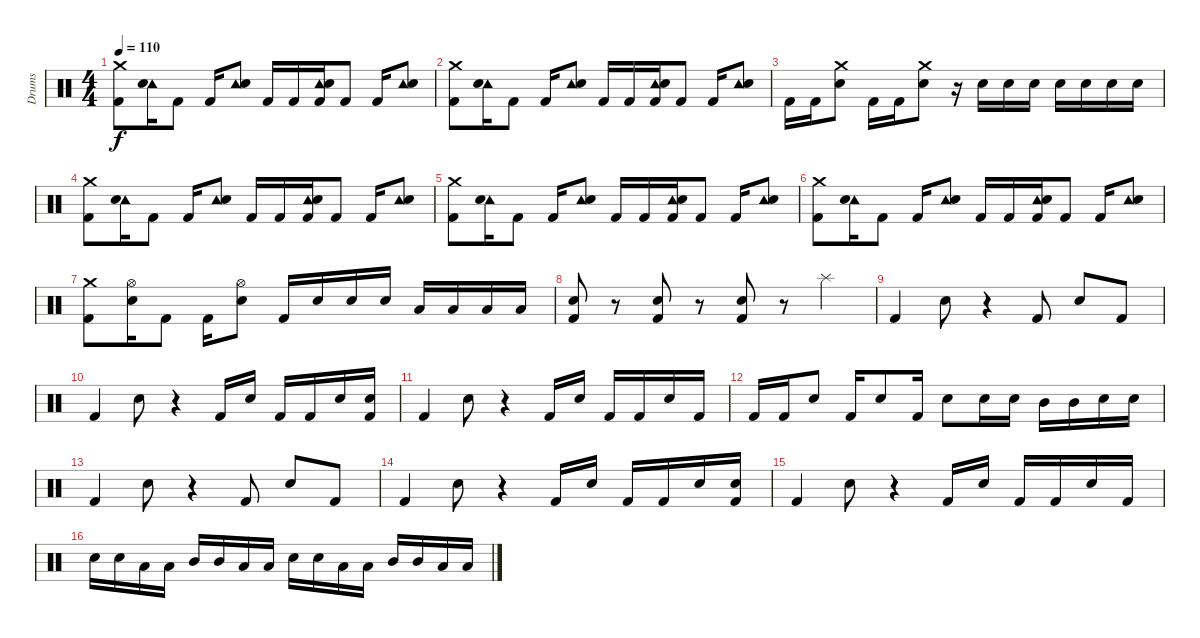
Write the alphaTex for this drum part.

\track ("Drums" "Drums") {instrument percussion}
\staff {score}
\articulation defaults
\ts (4 4)
\tempo 110
\clef neutral
\ks c
("Crash medium (hit)" "Kick (hit) 2").8{dy f} ("Tambourine (hit)" "Electric Snare (hit)").16 "Kick (hit) 2".8 "Kick (hit) 2".16 ("Tambourine (hit)" "Electric Snare (hit)").8 "Kick (hit) 2".16 "Kick (hit) 2".16 ("Tambourine (hit)" "Electric Snare (hit)" "Kick (hit) 2").16 "Kick (hit) 2".8 "Kick (hit) 2".16 ("Tambourine (hit)" "Electric Snare (hit)").8 |
("Crash medium (hit)" "Kick (hit) 2").8 ("Tambourine (hit)" "Electric Snare (hit)").16 "Kick (hit) 2".8 "Kick (hit) 2".16 ("Tambourine (hit)" "Electric Snare (hit)").8 "Kick (hit) 2".16 "Kick (hit) 2".16 ("Tambourine (hit)" "Electric Snare (hit)" "Kick (hit) 2").16 "Kick (hit) 2".8 "Kick (hit) 2".16 ("Tambourine (hit)" "Electric Snare (hit)").8 |
"Kick (hit) 2".16 "Kick (hit) 2".16 ("Crash medium (hit)" "Electric Snare (hit)").8 "Kick (hit) 2".16 "Kick (hit) 2".16 ("Crash medium (hit)" "Electric Snare (hit)").8 r.16 "Electric Snare (hit)".16 "Electric Snare (hit)".16 "Electric Snare (hit)".16 "Electric Snare (hit)".16 "Electric Snare (hit)".16 "Electric Snare (hit)".16 "Electric Snare (hit)".16 |
("Crash medium (hit)" "Kick (hit) 2").8 ("Tambourine (hit)" "Electric Snare (hit)").16 "Kick (hit) 2".8 "Kick (hit) 2".16 ("Tambourine (hit)" "Electric Snare (hit)").8 "Kick (hit) 2".16 "Kick (hit) 2".16 ("Tambourine (hit)" "Electric Snare (hit)" "Kick (hit) 2").16 "Kick (hit) 2".8 "Kick (hit) 2".16 ("Tambourine (hit)" "Electric Snare (hit)").8 |
("Crash medium (hit)" "Kick (hit) 2").8 ("Tambourine (hit)" "Electric Snare (hit)").16 "Kick (hit) 2".8 "Kick (hit) 2".16 ("Tambourine (hit)" "Electric Snare (hit)").8 "Kick (hit) 2".16 "Kick (hit) 2".16 ("Tambourine (hit)" "Electric Snare (hit)" "Kick (hit) 2").16 "Kick (hit) 2".8 "Kick (hit) 2".16 ("Tambourine (hit)" "Electric Snare (hit)").8 |
("Crash medium (hit)" "Kick (hit) 2").8 ("Tambourine (hit)" "Electric Snare (hit)").16 "Kick (hit) 2".8 "Kick (hit) 2".16 ("Tambourine (hit)" "Electric Snare (hit)").8 "Kick (hit) 2".16 "Kick (hit) 2".16 ("Tambourine (hit)" "Electric Snare (hit)" "Kick (hit) 2").16 "Kick (hit) 2".8 "Kick (hit) 2".16 ("Tambourine (hit)" "Electric Snare (hit)").8 |
("Crash medium (hit)" "Kick (hit) 2").8 ("Hi-Hat (open)" "Electric Snare (hit)").16 "Kick (hit) 2".8 "Kick (hit) 2".16 ("Hi-Hat (open)" "Electric Snare (hit)").8 "Kick (hit) 2".16 "Electric Snare (hit)".16 "Electric Snare (hit)".16 "Electric Snare (hit)".16 "Low Tom (hit)".16 "Low Tom (hit)".16 "Low Tom (hit)".16 "Low Floor Tom (hit)".16 |
("Electric Snare (hit)" "Kick (hit) 2").8 r.8 ("Electric Snare (hit)" "Kick (hit) 2").8 r.8 ("Electric Snare (hit)" "Kick (hit) 2").8 r.8 "Splash (hit)".4 |
"Kick (hit) 2".4 "Electric Snare (hit)".8 r.4 "Kick (hit) 2".8 "Electric Snare (hit)".8 "Kick (hit) 2".8 |
"Kick (hit) 2".4 "Electric Snare (hit)".8 r.4 "Kick (hit) 2".16 "Electric Snare (hit)".16 "Kick (hit) 2".16 "Kick (hit) 2".16 "Electric Snare (hit)".16 ("Electric Snare (hit)" "Kick (hit) 2").16 |
"Kick (hit) 2".4 "Electric Snare (hit)".8 r.4 "Kick (hit) 2".16 "Electric Snare (hit)".16 "Kick (hit) 2".16 "Kick (hit) 2".16 "Electric Snare (hit)".16 "Kick (hit) 2".16 |
"Kick (hit) 2".16 "Kick (hit) 2".16 "Electric Snare (hit)".8 "Kick (hit) 2".16 "Electric Snare (hit)".8 "Kick (hit) 2".16 "Electric Snare (hit)".8 "Electric Snare (hit)".16 "Electric Snare (hit)".16 "Mid Tom (hit)".16 "Mid Tom (hit)".16 "Electric Snare (hit)".16 "Electric Snare (hit)".16 |
"Kick (hit) 2".4 "Electric Snare (hit)".8 r.4 "Kick (hit) 2".8 "Electric Snare (hit)".8 "Kick (hit) 2".8 |
"Kick (hit) 2".4 "Electric Snare (hit)".8 r.4 "Kick (hit) 2".16 "Electric Snare (hit)".16 "Kick (hit) 2".16 "Kick (hit) 2".16 "Electric Snare (hit)".16 ("Electric Snare (hit)" "Kick (hit) 2").16 |
"Kick (hit) 2".4 "Electric Snare (hit)".8 r.4 "Kick (hit) 2".16 "Electric Snare (hit)".16 "Kick (hit) 2".16 "Kick (hit) 2".16 "Electric Snare (hit)".16 "Kick (hit) 2".16 |
"Electric Snare (hit)".16 "Electric Snare (hit)".16 "Low Tom (hit)".16 "Low Tom (hit)".16 "Mid Tom (hit)".16 "Mid Tom (hit)".16 "Low Tom (hit)".16 "Low Tom (hit)".16 "Electric Snare (hit)".16 "Electric Snare (hit)".16 "Low Tom (hit)".16 "Low Tom (hit)".16 "Mid Tom (hit)".16 "Mid Tom (hit)".16 "Low Tom (hit)".16 "Low Tom (hit)".16
